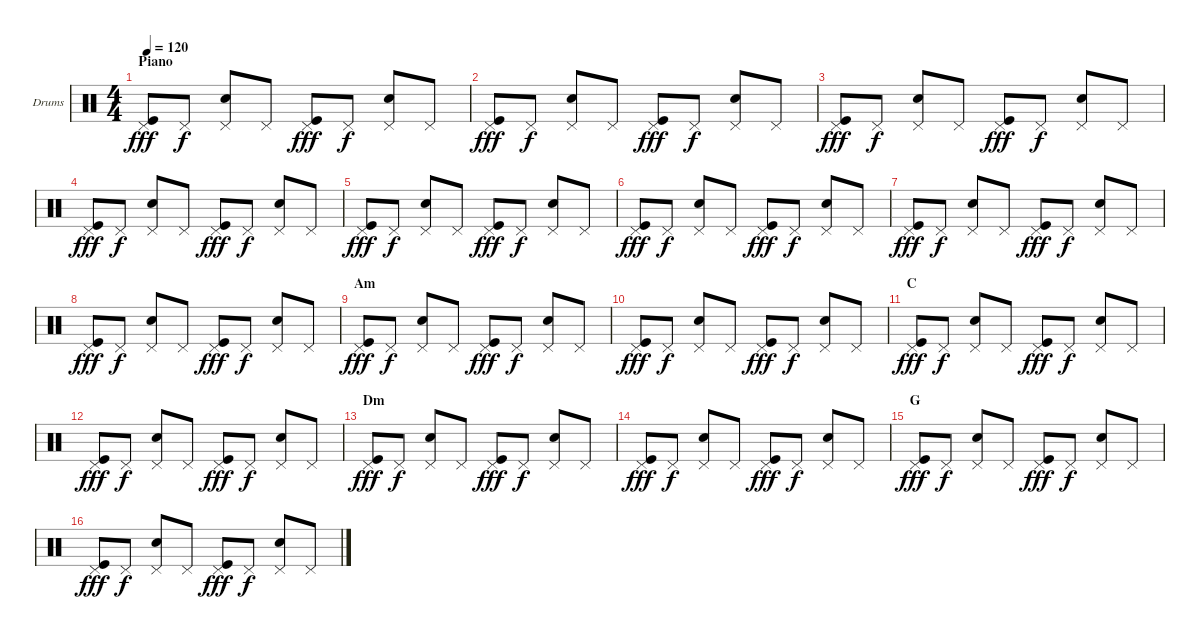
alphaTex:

\bracketExtendMode groupsimilarinstruments
\firstSystemTrackNameOrientation horizontal
\otherSystemsTrackNameOrientation horizontal
\track ("Ударные" "Drums") {instrument percussion}
\staff {score}
\articulation defaults
\ts (4 4)
\section ("" "Piano")
\tempo 120
\clef neutral
\ks c
("Kick (hit)" "Pedal Hi-Hat (hit)").8{dy fff} "Pedal Hi-Hat (hit)".8{dy f} ("Snare (hit) 2" "Pedal Hi-Hat (hit)").8 "Pedal Hi-Hat (hit)".8 ("Kick (hit)" "Pedal Hi-Hat (hit)").8{dy fff} "Pedal Hi-Hat (hit)".8{dy f} ("Snare (hit) 2" "Pedal Hi-Hat (hit)").8 "Pedal Hi-Hat (hit)".8 |
("Kick (hit)" "Pedal Hi-Hat (hit)").8{dy fff} "Pedal Hi-Hat (hit)".8{dy f} ("Snare (hit) 2" "Pedal Hi-Hat (hit)").8 "Pedal Hi-Hat (hit)".8 ("Kick (hit)" "Pedal Hi-Hat (hit)").8{dy fff} "Pedal Hi-Hat (hit)".8{dy f} ("Snare (hit) 2" "Pedal Hi-Hat (hit)").8 "Pedal Hi-Hat (hit)".8 |
("Kick (hit)" "Pedal Hi-Hat (hit)").8{dy fff} "Pedal Hi-Hat (hit)".8{dy f} ("Snare (hit) 2" "Pedal Hi-Hat (hit)").8 "Pedal Hi-Hat (hit)".8 ("Kick (hit)" "Pedal Hi-Hat (hit)").8{dy fff} "Pedal Hi-Hat (hit)".8{dy f} ("Snare (hit) 2" "Pedal Hi-Hat (hit)").8 "Pedal Hi-Hat (hit)".8 |
("Kick (hit)" "Pedal Hi-Hat (hit)").8{dy fff} "Pedal Hi-Hat (hit)".8{dy f} ("Snare (hit) 2" "Pedal Hi-Hat (hit)").8 "Pedal Hi-Hat (hit)".8 ("Kick (hit)" "Pedal Hi-Hat (hit)").8{dy fff} "Pedal Hi-Hat (hit)".8{dy f} ("Snare (hit) 2" "Pedal Hi-Hat (hit)").8 "Pedal Hi-Hat (hit)".8 |
("Kick (hit)" "Pedal Hi-Hat (hit)").8{dy fff} "Pedal Hi-Hat (hit)".8{dy f} ("Snare (hit) 2" "Pedal Hi-Hat (hit)").8 "Pedal Hi-Hat (hit)".8 ("Kick (hit)" "Pedal Hi-Hat (hit)").8{dy fff} "Pedal Hi-Hat (hit)".8{dy f} ("Snare (hit) 2" "Pedal Hi-Hat (hit)").8 "Pedal Hi-Hat (hit)".8 |
("Kick (hit)" "Pedal Hi-Hat (hit)").8{dy fff} "Pedal Hi-Hat (hit)".8{dy f} ("Snare (hit) 2" "Pedal Hi-Hat (hit)").8 "Pedal Hi-Hat (hit)".8 ("Kick (hit)" "Pedal Hi-Hat (hit)").8{dy fff} "Pedal Hi-Hat (hit)".8{dy f} ("Snare (hit) 2" "Pedal Hi-Hat (hit)").8 "Pedal Hi-Hat (hit)".8 |
("Kick (hit)" "Pedal Hi-Hat (hit)").8{dy fff} "Pedal Hi-Hat (hit)".8{dy f} ("Snare (hit) 2" "Pedal Hi-Hat (hit)").8 "Pedal Hi-Hat (hit)".8 ("Kick (hit)" "Pedal Hi-Hat (hit)").8{dy fff} "Pedal Hi-Hat (hit)".8{dy f} ("Snare (hit) 2" "Pedal Hi-Hat (hit)").8 "Pedal Hi-Hat (hit)".8 |
("Kick (hit)" "Pedal Hi-Hat (hit)").8{dy fff} "Pedal Hi-Hat (hit)".8{dy f} ("Snare (hit) 2" "Pedal Hi-Hat (hit)").8 "Pedal Hi-Hat (hit)".8 ("Kick (hit)" "Pedal Hi-Hat (hit)").8{dy fff} "Pedal Hi-Hat (hit)".8{dy f} ("Snare (hit) 2" "Pedal Hi-Hat (hit)").8 "Pedal Hi-Hat (hit)".8 |
\section ("" "Am")
("Kick (hit)" "Pedal Hi-Hat (hit)").8{dy fff} "Pedal Hi-Hat (hit)".8{dy f} ("Snare (hit) 2" "Pedal Hi-Hat (hit)").8 "Pedal Hi-Hat (hit)".8 ("Kick (hit)" "Pedal Hi-Hat (hit)").8{dy fff} "Pedal Hi-Hat (hit)".8{dy f} ("Snare (hit) 2" "Pedal Hi-Hat (hit)").8 "Pedal Hi-Hat (hit)".8 |
("Kick (hit)" "Pedal Hi-Hat (hit)").8{dy fff} "Pedal Hi-Hat (hit)".8{dy f} ("Snare (hit) 2" "Pedal Hi-Hat (hit)").8 "Pedal Hi-Hat (hit)".8 ("Kick (hit)" "Pedal Hi-Hat (hit)").8{dy fff} "Pedal Hi-Hat (hit)".8{dy f} ("Snare (hit) 2" "Pedal Hi-Hat (hit)").8 "Pedal Hi-Hat (hit)".8 |
\section ("" "C")
("Kick (hit)" "Pedal Hi-Hat (hit)").8{dy fff} "Pedal Hi-Hat (hit)".8{dy f} ("Snare (hit) 2" "Pedal Hi-Hat (hit)").8 "Pedal Hi-Hat (hit)".8 ("Kick (hit)" "Pedal Hi-Hat (hit)").8{dy fff} "Pedal Hi-Hat (hit)".8{dy f} ("Snare (hit) 2" "Pedal Hi-Hat (hit)").8 "Pedal Hi-Hat (hit)".8 |
("Kick (hit)" "Pedal Hi-Hat (hit)").8{dy fff} "Pedal Hi-Hat (hit)".8{dy f} ("Snare (hit) 2" "Pedal Hi-Hat (hit)").8 "Pedal Hi-Hat (hit)".8 ("Kick (hit)" "Pedal Hi-Hat (hit)").8{dy fff} "Pedal Hi-Hat (hit)".8{dy f} ("Snare (hit) 2" "Pedal Hi-Hat (hit)").8 "Pedal Hi-Hat (hit)".8 |
\section ("" "Dm")
("Kick (hit)" "Pedal Hi-Hat (hit)").8{dy fff} "Pedal Hi-Hat (hit)".8{dy f} ("Snare (hit) 2" "Pedal Hi-Hat (hit)").8 "Pedal Hi-Hat (hit)".8 ("Kick (hit)" "Pedal Hi-Hat (hit)").8{dy fff} "Pedal Hi-Hat (hit)".8{dy f} ("Snare (hit) 2" "Pedal Hi-Hat (hit)").8 "Pedal Hi-Hat (hit)".8 |
("Kick (hit)" "Pedal Hi-Hat (hit)").8{dy fff} "Pedal Hi-Hat (hit)".8{dy f} ("Snare (hit) 2" "Pedal Hi-Hat (hit)").8 "Pedal Hi-Hat (hit)".8 ("Kick (hit)" "Pedal Hi-Hat (hit)").8{dy fff} "Pedal Hi-Hat (hit)".8{dy f} ("Snare (hit) 2" "Pedal Hi-Hat (hit)").8 "Pedal Hi-Hat (hit)".8 |
\section ("" "G")
("Kick (hit)" "Pedal Hi-Hat (hit)").8{dy fff} "Pedal Hi-Hat (hit)".8{dy f} ("Snare (hit) 2" "Pedal Hi-Hat (hit)").8 "Pedal Hi-Hat (hit)".8 ("Kick (hit)" "Pedal Hi-Hat (hit)").8{dy fff} "Pedal Hi-Hat (hit)".8{dy f} ("Snare (hit) 2" "Pedal Hi-Hat (hit)").8 "Pedal Hi-Hat (hit)".8 |
("Kick (hit)" "Pedal Hi-Hat (hit)").8{dy fff} "Pedal Hi-Hat (hit)".8{dy f} ("Snare (hit) 2" "Pedal Hi-Hat (hit)").8 "Pedal Hi-Hat (hit)".8 ("Kick (hit)" "Pedal Hi-Hat (hit)").8{dy fff} "Pedal Hi-Hat (hit)".8{dy f} ("Snare (hit) 2" "Pedal Hi-Hat (hit)").8 "Pedal Hi-Hat (hit)".8
